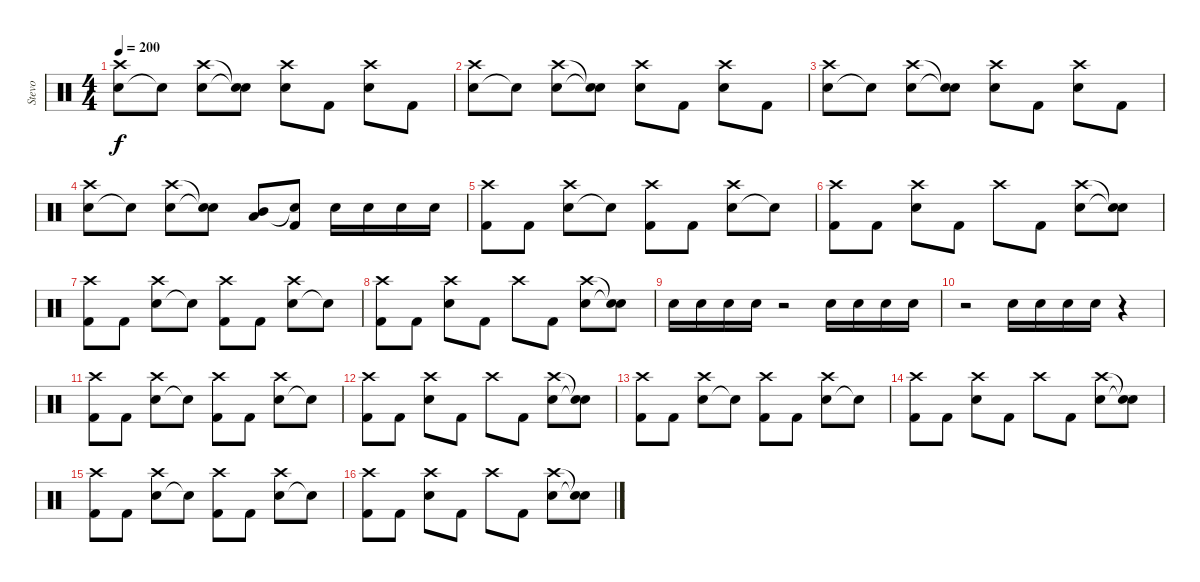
\track ("Stevo" "Stevo") {instrument percussion}
\staff {score}
\articulation defaults
\ts (4 4)
\tempo 200
\clef neutral
\ks c
("Snare (hit) 2" "Crash high (hit)").8{dy f} "Snare (hit)"{t}.8 ("Snare (hit) 2" "Crash high (hit)").8 ("Snare (hit)"{t} "Snare (hit)"{t}).8 ("Snare (hit) 2" "Crash high (hit)").8 "Kick (hit) 2".8 ("Snare (hit) 2" "Crash high (hit)").8 "Kick (hit) 2".8 |
("Snare (hit) 2" "Crash high (hit)").8 "Snare (hit)"{t}.8 ("Snare (hit) 2" "Crash high (hit)").8 ("Snare (hit)"{t} "Snare (hit)"{t}).8 ("Snare (hit) 2" "Crash high (hit)").8 "Kick (hit) 2".8 ("Snare (hit) 2" "Crash high (hit)").8 "Kick (hit) 2".8 |
("Snare (hit) 2" "Crash high (hit)").8 "Snare (hit)"{t}.8 ("Snare (hit) 2" "Crash high (hit)").8 ("Snare (hit)"{t} "Snare (hit)"{t}).8 ("Snare (hit) 2" "Crash high (hit)").8 "Kick (hit) 2".8 ("Snare (hit) 2" "Crash high (hit)").8 "Kick (hit) 2".8 |
("Snare (hit) 2" "Crash high (hit)").8 "Snare (hit)"{t}.8 ("Snare (hit) 2" "Crash high (hit)").8 ("Snare (hit)"{t} "Snare (hit)"{t}).8 ("Mid Tom (hit)" "Low Tom (hit)").8 ("Kick (hit) 2" "Snare (hit) 2"{t}).8 "Snare (hit) 2".16 "Snare (hit) 2".16 "Snare (hit) 2".16 "Snare (hit) 2".16 |
("Kick (hit) 2" "Crash high (hit)").8 "Kick (hit) 2".8 ("Snare (hit) 2" "Crash high (hit)").8 "Snare (hit)"{t}.8 ("Kick (hit) 2" "Crash high (hit)").8 "Kick (hit) 2".8 ("Snare (hit) 2" "Crash high (hit)").8 "Snare (hit)"{t}.8 |
("Kick (hit) 2" "Crash high (hit)").8 "Kick (hit) 2".8 ("Snare (hit) 2" "Crash high (hit)").8 "Kick (hit) 2".8 "Crash high (hit)".8 "Kick (hit) 2".8 ("Snare (hit) 2" "Crash high (hit)").8 ("Snare (hit)"{t} "Snare (hit)"{t}).8 |
("Kick (hit) 2" "Crash high (hit)").8 "Kick (hit) 2".8 ("Snare (hit) 2" "Crash high (hit)").8 "Snare (hit)"{t}.8 ("Kick (hit) 2" "Crash high (hit)").8 "Kick (hit) 2".8 ("Snare (hit) 2" "Crash high (hit)").8 "Snare (hit)"{t}.8 |
("Kick (hit) 2" "Crash high (hit)").8 "Kick (hit) 2".8 ("Snare (hit) 2" "Crash high (hit)").8 "Kick (hit) 2".8 "Crash high (hit)".8 "Kick (hit) 2".8 ("Snare (hit) 2" "Crash high (hit)").8 ("Snare (hit)"{t} "Snare (hit)"{t}).8 |
"Snare (hit) 2".16 "Snare (hit) 2".16 "Snare (hit) 2".16 "Snare (hit) 2".16 r.2 "Snare (hit) 2".16 "Snare (hit) 2".16 "Snare (hit) 2".16 "Snare (hit) 2".16 |
r.2 "Snare (hit) 2".16 "Snare (hit) 2".16 "Snare (hit) 2".16 "Snare (hit) 2".16 r.4 |
("Kick (hit) 2" "Crash high (hit)").8 "Kick (hit) 2".8 ("Snare (hit) 2" "Crash high (hit)").8 "Snare (hit)"{t}.8 ("Kick (hit) 2" "Crash high (hit)").8 "Kick (hit) 2".8 ("Snare (hit) 2" "Crash high (hit)").8 "Snare (hit)"{t}.8 |
("Kick (hit) 2" "Crash high (hit)").8 "Kick (hit) 2".8 ("Snare (hit) 2" "Crash high (hit)").8 "Kick (hit) 2".8 "Crash high (hit)".8 "Kick (hit) 2".8 ("Snare (hit) 2" "Crash high (hit)").8 ("Snare (hit)"{t} "Snare (hit)"{t}).8 |
("Kick (hit) 2" "Crash high (hit)").8 "Kick (hit) 2".8 ("Snare (hit) 2" "Crash high (hit)").8 "Snare (hit)"{t}.8 ("Kick (hit) 2" "Crash high (hit)").8 "Kick (hit) 2".8 ("Snare (hit) 2" "Crash high (hit)").8 "Snare (hit)"{t}.8 |
("Kick (hit) 2" "Crash high (hit)").8 "Kick (hit) 2".8 ("Snare (hit) 2" "Crash high (hit)").8 "Kick (hit) 2".8 "Crash high (hit)".8 "Kick (hit) 2".8 ("Snare (hit) 2" "Crash high (hit)").8 ("Snare (hit)"{t} "Snare (hit)"{t}).8 |
("Kick (hit) 2" "Crash high (hit)").8 "Kick (hit) 2".8 ("Snare (hit) 2" "Crash high (hit)").8 "Snare (hit)"{t}.8 ("Kick (hit) 2" "Crash high (hit)").8 "Kick (hit) 2".8 ("Snare (hit) 2" "Crash high (hit)").8 "Snare (hit)"{t}.8 |
("Kick (hit) 2" "Crash high (hit)").8 "Kick (hit) 2".8 ("Snare (hit) 2" "Crash high (hit)").8 "Kick (hit) 2".8 "Crash high (hit)".8 "Kick (hit) 2".8 ("Snare (hit) 2" "Crash high (hit)").8 ("Snare (hit)"{t} "Snare (hit)"{t}).8
